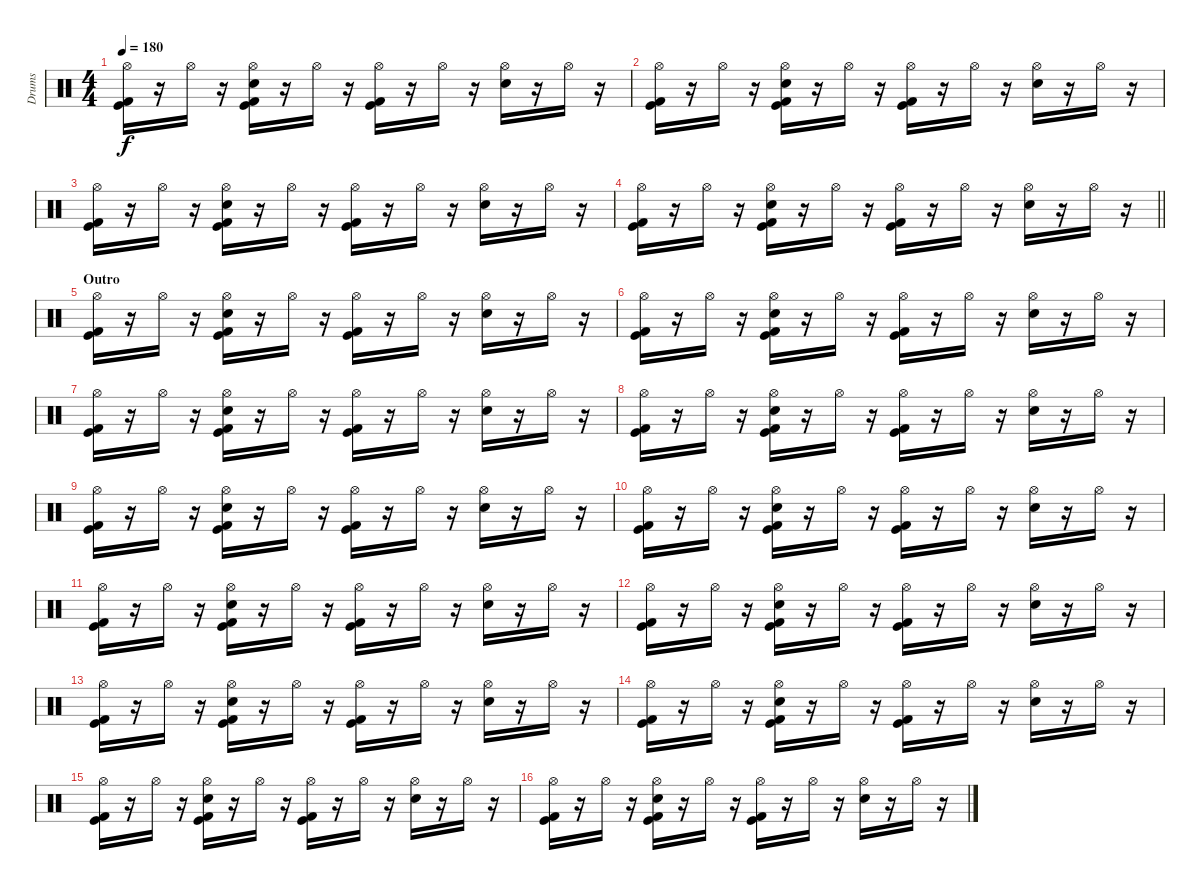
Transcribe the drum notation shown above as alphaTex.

\track ("Drums" "Drums") {instrument percussion}
\staff {score}
\articulation defaults
\ts (4 4)
\tempo 180
\clef neutral
\ks c
("Hi-Hat (open)" "Kick (hit) 2" "Kick (hit)").16{dy f} r.16 "Hi-Hat (open)".16 r.16 ("Hi-Hat (open)" "Electric Snare (hit)" "Kick (hit) 2" "Kick (hit)").16 r.16 "Hi-Hat (open)".16 r.16 ("Hi-Hat (open)" "Kick (hit) 2" "Kick (hit)").16 r.16 "Hi-Hat (open)".16 r.16 ("Hi-Hat (open)" "Electric Snare (hit)").16 r.16 "Hi-Hat (open)".16 r.16 |
("Hi-Hat (open)" "Kick (hit) 2" "Kick (hit)").16 r.16 "Hi-Hat (open)".16 r.16 ("Hi-Hat (open)" "Electric Snare (hit)" "Kick (hit) 2" "Kick (hit)").16 r.16 "Hi-Hat (open)".16 r.16 ("Hi-Hat (open)" "Kick (hit) 2" "Kick (hit)").16 r.16 "Hi-Hat (open)".16 r.16 ("Hi-Hat (open)" "Electric Snare (hit)").16 r.16 "Hi-Hat (open)".16 r.16 |
("Hi-Hat (open)" "Kick (hit) 2" "Kick (hit)").16 r.16 "Hi-Hat (open)".16 r.16 ("Hi-Hat (open)" "Electric Snare (hit)" "Kick (hit) 2" "Kick (hit)").16 r.16 "Hi-Hat (open)".16 r.16 ("Hi-Hat (open)" "Kick (hit) 2" "Kick (hit)").16 r.16 "Hi-Hat (open)".16 r.16 ("Hi-Hat (open)" "Electric Snare (hit)").16 r.16 "Hi-Hat (open)".16 r.16 |
\barLineRight lightlight
("Hi-Hat (open)" "Kick (hit) 2" "Kick (hit)").16 r.16 "Hi-Hat (open)".16 r.16 ("Hi-Hat (open)" "Electric Snare (hit)" "Kick (hit) 2" "Kick (hit)").16 r.16 "Hi-Hat (open)".16 r.16 ("Hi-Hat (open)" "Kick (hit) 2" "Kick (hit)").16 r.16 "Hi-Hat (open)".16 r.16 ("Hi-Hat (open)" "Electric Snare (hit)").16 r.16 "Hi-Hat (open)".16 r.16 |
\section ("" "Outro")
("Hi-Hat (open)" "Kick (hit) 2" "Kick (hit)").16 r.16 "Hi-Hat (open)".16 r.16 ("Hi-Hat (open)" "Electric Snare (hit)" "Kick (hit) 2" "Kick (hit)").16 r.16 "Hi-Hat (open)".16 r.16 ("Hi-Hat (open)" "Kick (hit) 2" "Kick (hit)").16 r.16 "Hi-Hat (open)".16 r.16 ("Hi-Hat (open)" "Electric Snare (hit)").16 r.16 "Hi-Hat (open)".16 r.16 |
("Hi-Hat (open)" "Kick (hit) 2" "Kick (hit)").16 r.16 "Hi-Hat (open)".16 r.16 ("Hi-Hat (open)" "Electric Snare (hit)" "Kick (hit) 2" "Kick (hit)").16 r.16 "Hi-Hat (open)".16 r.16 ("Hi-Hat (open)" "Kick (hit) 2" "Kick (hit)").16 r.16 "Hi-Hat (open)".16 r.16 ("Hi-Hat (open)" "Electric Snare (hit)").16 r.16 "Hi-Hat (open)".16 r.16 |
("Hi-Hat (open)" "Kick (hit) 2" "Kick (hit)").16 r.16 "Hi-Hat (open)".16 r.16 ("Hi-Hat (open)" "Electric Snare (hit)" "Kick (hit) 2" "Kick (hit)").16 r.16 "Hi-Hat (open)".16 r.16 ("Hi-Hat (open)" "Kick (hit) 2" "Kick (hit)").16 r.16 "Hi-Hat (open)".16 r.16 ("Hi-Hat (open)" "Electric Snare (hit)").16 r.16 "Hi-Hat (open)".16 r.16 |
("Hi-Hat (open)" "Kick (hit) 2" "Kick (hit)").16 r.16 "Hi-Hat (open)".16 r.16 ("Hi-Hat (open)" "Electric Snare (hit)" "Kick (hit) 2" "Kick (hit)").16 r.16 "Hi-Hat (open)".16 r.16 ("Hi-Hat (open)" "Kick (hit) 2" "Kick (hit)").16 r.16 "Hi-Hat (open)".16 r.16 ("Hi-Hat (open)" "Electric Snare (hit)").16 r.16 "Hi-Hat (open)".16 r.16 |
("Hi-Hat (open)" "Kick (hit) 2" "Kick (hit)").16 r.16 "Hi-Hat (open)".16 r.16 ("Hi-Hat (open)" "Electric Snare (hit)" "Kick (hit) 2" "Kick (hit)").16 r.16 "Hi-Hat (open)".16 r.16 ("Hi-Hat (open)" "Kick (hit) 2" "Kick (hit)").16 r.16 "Hi-Hat (open)".16 r.16 ("Hi-Hat (open)" "Electric Snare (hit)").16 r.16 "Hi-Hat (open)".16 r.16 |
("Hi-Hat (open)" "Kick (hit) 2" "Kick (hit)").16 r.16 "Hi-Hat (open)".16 r.16 ("Hi-Hat (open)" "Electric Snare (hit)" "Kick (hit) 2" "Kick (hit)").16 r.16 "Hi-Hat (open)".16 r.16 ("Hi-Hat (open)" "Kick (hit) 2" "Kick (hit)").16 r.16 "Hi-Hat (open)".16 r.16 ("Hi-Hat (open)" "Electric Snare (hit)").16 r.16 "Hi-Hat (open)".16 r.16 |
("Hi-Hat (open)" "Kick (hit) 2" "Kick (hit)").16 r.16 "Hi-Hat (open)".16 r.16 ("Hi-Hat (open)" "Electric Snare (hit)" "Kick (hit) 2" "Kick (hit)").16 r.16 "Hi-Hat (open)".16 r.16 ("Hi-Hat (open)" "Kick (hit) 2" "Kick (hit)").16 r.16 "Hi-Hat (open)".16 r.16 ("Hi-Hat (open)" "Electric Snare (hit)").16 r.16 "Hi-Hat (open)".16 r.16 |
("Hi-Hat (open)" "Kick (hit) 2" "Kick (hit)").16 r.16 "Hi-Hat (open)".16 r.16 ("Hi-Hat (open)" "Electric Snare (hit)" "Kick (hit) 2" "Kick (hit)").16 r.16 "Hi-Hat (open)".16 r.16 ("Hi-Hat (open)" "Kick (hit) 2" "Kick (hit)").16 r.16 "Hi-Hat (open)".16 r.16 ("Hi-Hat (open)" "Electric Snare (hit)").16 r.16 "Hi-Hat (open)".16 r.16 |
("Hi-Hat (open)" "Kick (hit) 2" "Kick (hit)").16 r.16 "Hi-Hat (open)".16 r.16 ("Hi-Hat (open)" "Electric Snare (hit)" "Kick (hit) 2" "Kick (hit)").16 r.16 "Hi-Hat (open)".16 r.16 ("Hi-Hat (open)" "Kick (hit) 2" "Kick (hit)").16 r.16 "Hi-Hat (open)".16 r.16 ("Hi-Hat (open)" "Electric Snare (hit)").16 r.16 "Hi-Hat (open)".16 r.16 |
("Hi-Hat (open)" "Kick (hit) 2" "Kick (hit)").16 r.16 "Hi-Hat (open)".16 r.16 ("Hi-Hat (open)" "Electric Snare (hit)" "Kick (hit) 2" "Kick (hit)").16 r.16 "Hi-Hat (open)".16 r.16 ("Hi-Hat (open)" "Kick (hit) 2" "Kick (hit)").16 r.16 "Hi-Hat (open)".16 r.16 ("Hi-Hat (open)" "Electric Snare (hit)").16 r.16 "Hi-Hat (open)".16 r.16 |
("Hi-Hat (open)" "Kick (hit) 2" "Kick (hit)").16 r.16 "Hi-Hat (open)".16 r.16 ("Hi-Hat (open)" "Electric Snare (hit)" "Kick (hit) 2" "Kick (hit)").16 r.16 "Hi-Hat (open)".16 r.16 ("Hi-Hat (open)" "Kick (hit) 2" "Kick (hit)").16 r.16 "Hi-Hat (open)".16 r.16 ("Hi-Hat (open)" "Electric Snare (hit)").16 r.16 "Hi-Hat (open)".16 r.16 |
("Hi-Hat (open)" "Kick (hit) 2" "Kick (hit)").16 r.16 "Hi-Hat (open)".16 r.16 ("Hi-Hat (open)" "Electric Snare (hit)" "Kick (hit) 2" "Kick (hit)").16 r.16 "Hi-Hat (open)".16 r.16 ("Hi-Hat (open)" "Kick (hit) 2" "Kick (hit)").16 r.16 "Hi-Hat (open)".16 r.16 ("Hi-Hat (open)" "Electric Snare (hit)").16 r.16 "Hi-Hat (open)".16 r.16
